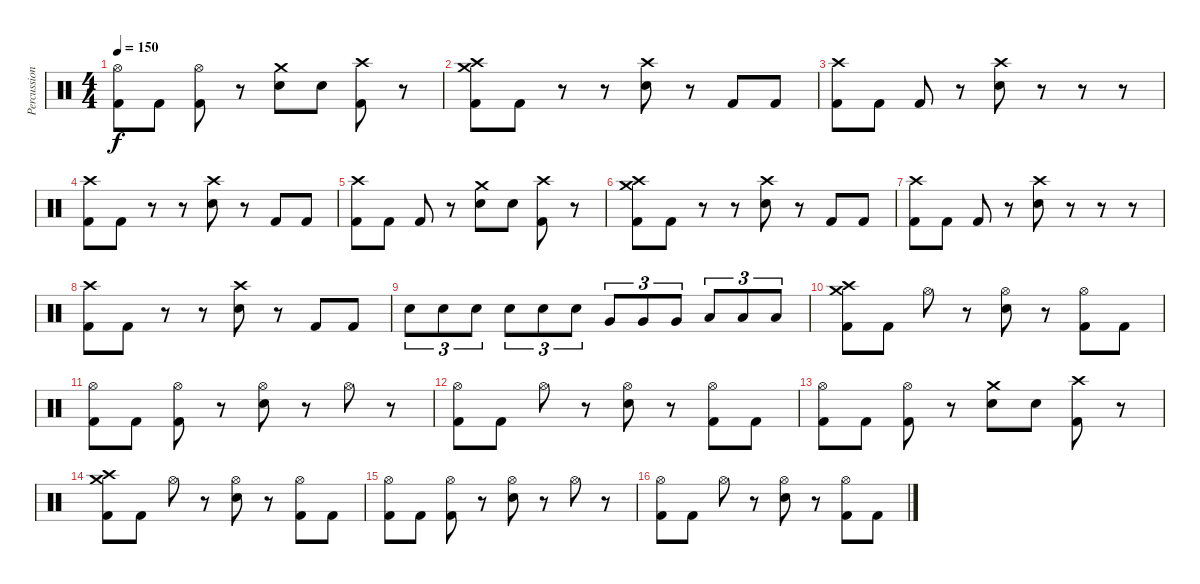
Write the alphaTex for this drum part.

\track ("Percussion" "Percussion") {instrument percussion}
\staff {score}
\articulation defaults
\ts (4 4)
\tempo 150
\clef neutral
\ks c
("Hi-Hat (open)" "Kick (hit) 2").8{dy f} "Kick (hit) 2".8 ("Hi-Hat (open)" "Kick (hit) 2").8 r.8 ("Crash medium (hit)" "Snare (hit) 2").8 "Snare (hit) 2".8 ("Crash high (hit)" "Kick (hit) 2").8 r.8 |
("Crash medium (hit)" "Crash high (hit)" "Kick (hit) 2").8 "Kick (hit) 2".8 r.8 r.8 ("Crash high (hit)" "Snare (hit) 2").8 r.8 "Kick (hit) 2".8 "Kick (hit) 2".8 |
("Crash high (hit)" "Kick (hit) 2").8 "Kick (hit) 2".8 "Kick (hit) 2".8 r.8 ("Crash high (hit)" "Snare (hit) 2").8 r.8 r.8 r.8 |
("Crash high (hit)" "Kick (hit) 2").8 "Kick (hit) 2".8 r.8 r.8 ("Crash high (hit)" "Snare (hit) 2").8 r.8 "Kick (hit) 2".8 "Kick (hit) 2".8 |
("Crash high (hit)" "Kick (hit) 2").8 "Kick (hit) 2".8 "Kick (hit) 2".8 r.8 ("Crash medium (hit)" "Snare (hit) 2").8 "Snare (hit) 2".8 ("Crash high (hit)" "Kick (hit) 2").8 r.8 |
("Crash medium (hit)" "Crash high (hit)" "Kick (hit) 2").8 "Kick (hit) 2".8 r.8 r.8 ("Crash high (hit)" "Snare (hit) 2").8 r.8 "Kick (hit) 2".8 "Kick (hit) 2".8 |
("Crash high (hit)" "Kick (hit) 2").8 "Kick (hit) 2".8 "Kick (hit) 2".8 r.8 ("Crash high (hit)" "Snare (hit) 2").8 r.8 r.8 r.8 |
("Crash high (hit)" "Kick (hit) 2").8 "Kick (hit) 2".8 r.8 r.8 ("Crash high (hit)" "Snare (hit) 2").8 r.8 "Kick (hit) 2".8 "Kick (hit) 2".8 |
"Snare (hit) 2".8{tu (3 2)} "Snare (hit) 2".8{tu (3 2)} "Snare (hit) 2".8{tu (3 2)} "Snare (hit) 2".8{tu (3 2)} "Snare (hit) 2".8{tu (3 2)} "Snare (hit) 2".8{tu (3 2)} "Very Low Tom (hit)".8{tu (3 2)} "Very Low Tom (hit)".8{tu (3 2)} "Very Low Tom (hit)".8{tu (3 2)} "Low Floor Tom (hit)".8{tu (3 2)} "Low Floor Tom (hit)".8{tu (3 2)} "Low Floor Tom (hit)".8{tu (3 2)} |
("Crash medium (hit)" "Crash high (hit)" "Kick (hit) 2").8 "Kick (hit) 2".8 "Hi-Hat (open)".8 r.8 ("Hi-Hat (open)" "Snare (hit) 2").8 r.8 ("Hi-Hat (open)" "Kick (hit) 2").8 "Kick (hit) 2".8 |
("Hi-Hat (open)" "Kick (hit) 2").8 "Kick (hit) 2".8 ("Hi-Hat (open)" "Kick (hit) 2").8 r.8 ("Hi-Hat (open)" "Snare (hit) 2").8 r.8 "Hi-Hat (open)".8 r.8 |
("Hi-Hat (open)" "Kick (hit) 2").8 "Kick (hit) 2".8 "Hi-Hat (open)".8 r.8 ("Hi-Hat (open)" "Snare (hit) 2").8 r.8 ("Hi-Hat (open)" "Kick (hit) 2").8 "Kick (hit) 2".8 |
("Hi-Hat (open)" "Kick (hit) 2").8 "Kick (hit) 2".8 ("Hi-Hat (open)" "Kick (hit) 2").8 r.8 ("Crash medium (hit)" "Snare (hit) 2").8 "Snare (hit) 2".8 ("Crash high (hit)" "Kick (hit) 2").8 r.8 |
("Crash medium (hit)" "Crash high (hit)" "Kick (hit) 2").8 "Kick (hit) 2".8 "Hi-Hat (open)".8 r.8 ("Hi-Hat (open)" "Snare (hit) 2").8 r.8 ("Hi-Hat (open)" "Kick (hit) 2").8 "Kick (hit) 2".8 |
("Hi-Hat (open)" "Kick (hit) 2").8 "Kick (hit) 2".8 ("Hi-Hat (open)" "Kick (hit) 2").8 r.8 ("Hi-Hat (open)" "Snare (hit) 2").8 r.8 "Hi-Hat (open)".8 r.8 |
("Hi-Hat (open)" "Kick (hit) 2").8 "Kick (hit) 2".8 "Hi-Hat (open)".8 r.8 ("Hi-Hat (open)" "Snare (hit) 2").8 r.8 ("Hi-Hat (open)" "Kick (hit) 2").8 "Kick (hit) 2".8
